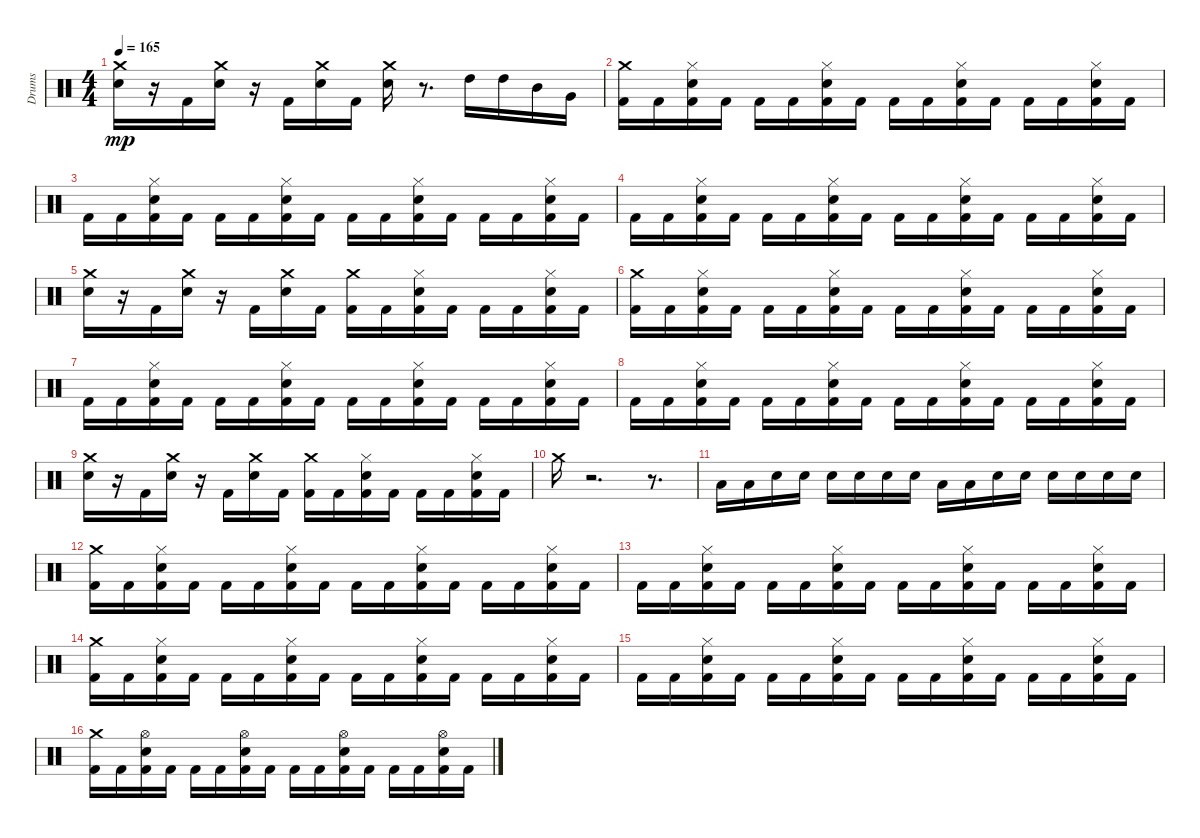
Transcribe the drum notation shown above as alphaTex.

\track ("Drums" "Drums") {instrument percussion}
\staff {score}
\articulation defaults
\ts (4 4)
\tempo 165
\clef neutral
\ks c
("Electric Snare (hit)" "Crash medium (hit)").16{dy mp} r.16 "Kick (hit) 2".16 ("Electric Snare (hit)" "Crash medium (hit)").16 r.16 "Kick (hit) 2".16 ("Crash medium (hit)" "Electric Snare (hit)").16 "Kick (hit) 2".16 ("Electric Snare (hit)" "Crash medium (hit)").16 r.8{d} "High Tom (hit)".16 "High Tom (hit)".16 "Mid Tom (hit)".16 "Very Low Tom (hit)".16 |
("Kick (hit) 2" "Crash medium (hit)").16 "Kick (hit) 2".16 ("Kick (hit) 2" "Hi-Hat (closed)" "Electric Snare (hit)").16 "Kick (hit) 2".16 "Kick (hit) 2".16 "Kick (hit) 2".16 ("Hi-Hat (closed)" "Electric Snare (hit)" "Kick (hit) 2").16 "Kick (hit) 2".16 "Kick (hit) 2".16 "Kick (hit) 2".16 ("Hi-Hat (closed)" "Electric Snare (hit)" "Kick (hit) 2").16 "Kick (hit) 2".16 "Kick (hit) 2".16 "Kick (hit) 2".16 ("Electric Snare (hit)" "Hi-Hat (closed)" "Kick (hit) 2").16 "Kick (hit) 2".16 |
"Kick (hit) 2".16 "Kick (hit) 2".16 ("Kick (hit) 2" "Electric Snare (hit)" "Hi-Hat (closed)").16 "Kick (hit) 2".16 "Kick (hit) 2".16 "Kick (hit) 2".16 ("Electric Snare (hit)" "Kick (hit) 2" "Hi-Hat (closed)").16 "Kick (hit) 2".16 "Kick (hit) 2".16 "Kick (hit) 2".16 ("Kick (hit) 2" "Hi-Hat (closed)" "Electric Snare (hit)").16 "Kick (hit) 2".16 "Kick (hit) 2".16 "Kick (hit) 2".16 ("Hi-Hat (closed)" "Electric Snare (hit)" "Kick (hit) 2").16 "Kick (hit) 2".16 |
"Kick (hit) 2".16 "Kick (hit) 2".16 ("Kick (hit) 2" "Electric Snare (hit)" "Hi-Hat (closed)").16 "Kick (hit) 2".16 "Kick (hit) 2".16 "Kick (hit) 2".16 ("Electric Snare (hit)" "Kick (hit) 2" "Hi-Hat (closed)").16 "Kick (hit) 2".16 "Kick (hit) 2".16 "Kick (hit) 2".16 ("Hi-Hat (closed)" "Electric Snare (hit)" "Kick (hit) 2").16 "Kick (hit) 2".16 "Kick (hit) 2".16 "Kick (hit) 2".16 ("Kick (hit) 2" "Hi-Hat (closed)" "Electric Snare (hit)").16 "Kick (hit) 2".16 |
("Electric Snare (hit)" "Crash medium (hit)").16 r.16 "Kick (hit) 2".16 ("Crash medium (hit)" "Electric Snare (hit)").16 r.16 "Kick (hit) 2".16 ("Crash medium (hit)" "Electric Snare (hit)").16 "Kick (hit) 2".16 ("Crash medium (hit)" "Kick (hit) 2").16 "Kick (hit) 2".16 ("Hi-Hat (closed)" "Kick (hit) 2" "Electric Snare (hit)").16 "Kick (hit) 2".16 "Kick (hit) 2".16 "Kick (hit) 2".16 ("Hi-Hat (closed)" "Kick (hit) 2" "Electric Snare (hit)").16 "Kick (hit) 2".16 |
("Crash medium (hit)" "Kick (hit) 2").16 "Kick (hit) 2".16 ("Hi-Hat (closed)" "Electric Snare (hit)" "Kick (hit) 2").16 "Kick (hit) 2".16 "Kick (hit) 2".16 "Kick (hit) 2".16 ("Hi-Hat (closed)" "Kick (hit) 2" "Electric Snare (hit)").16 "Kick (hit) 2".16 "Kick (hit) 2".16 "Kick (hit) 2".16 ("Hi-Hat (closed)" "Kick (hit) 2" "Electric Snare (hit)").16 "Kick (hit) 2".16 "Kick (hit) 2".16 "Kick (hit) 2".16 ("Kick (hit) 2" "Hi-Hat (closed)" "Electric Snare (hit)").16 "Kick (hit) 2".16 |
"Kick (hit) 2".16 "Kick (hit) 2".16 ("Electric Snare (hit)" "Hi-Hat (closed)" "Kick (hit) 2").16 "Kick (hit) 2".16 "Kick (hit) 2".16 "Kick (hit) 2".16 ("Electric Snare (hit)" "Hi-Hat (closed)" "Kick (hit) 2").16 "Kick (hit) 2".16 "Kick (hit) 2".16 "Kick (hit) 2".16 ("Kick (hit) 2" "Hi-Hat (closed)" "Electric Snare (hit)").16 "Kick (hit) 2".16 "Kick (hit) 2".16 "Kick (hit) 2".16 ("Electric Snare (hit)" "Kick (hit) 2" "Hi-Hat (closed)").16 "Kick (hit) 2".16 |
"Kick (hit) 2".16 "Kick (hit) 2".16 ("Kick (hit) 2" "Electric Snare (hit)" "Hi-Hat (closed)").16 "Kick (hit) 2".16 "Kick (hit) 2".16 "Kick (hit) 2".16 ("Electric Snare (hit)" "Hi-Hat (closed)" "Kick (hit) 2").16 "Kick (hit) 2".16 "Kick (hit) 2".16 "Kick (hit) 2".16 ("Kick (hit) 2" "Electric Snare (hit)" "Hi-Hat (closed)").16 "Kick (hit) 2".16 "Kick (hit) 2".16 "Kick (hit) 2".16 ("Electric Snare (hit)" "Kick (hit) 2" "Hi-Hat (closed)").16 "Kick (hit) 2".16 |
("Electric Snare (hit)" "Crash medium (hit)").16 r.16 "Kick (hit) 2".16 ("Crash medium (hit)" "Electric Snare (hit)").16 r.16 "Kick (hit) 2".16 ("Crash medium (hit)" "Electric Snare (hit)").16 "Kick (hit) 2".16 ("Crash medium (hit)" "Kick (hit) 2").16 "Kick (hit) 2".16 ("Hi-Hat (closed)" "Electric Snare (hit)" "Kick (hit) 2").16 "Kick (hit) 2".16 "Kick (hit) 2".16 "Kick (hit) 2".16 ("Hi-Hat (closed)" "Kick (hit) 2" "Electric Snare (hit)").16 "Kick (hit) 2".16 |
"Crash medium (hit)".16 r.2{d} r.8{d} |
"Low Floor Tom (hit)".16 "Low Floor Tom (hit)".16 "Electric Snare (hit)".16 "Electric Snare (hit)".16 "Electric Snare (hit)".16 "Electric Snare (hit)".16 "Electric Snare (hit)".16 "Electric Snare (hit)".16 "Low Floor Tom (hit)".16 "Low Floor Tom (hit)".16 "Electric Snare (hit)".16 "Electric Snare (hit)".16 "Electric Snare (hit)".16 "Electric Snare (hit)".16 "Electric Snare (hit)".16 "Electric Snare (hit)".16 |
("Kick (hit) 2" "Crash medium (hit)").16 "Kick (hit) 2".16 ("Hi-Hat (closed)" "Kick (hit) 2" "Electric Snare (hit)").16 "Kick (hit) 2".16 "Kick (hit) 2".16 "Kick (hit) 2".16 ("Kick (hit) 2" "Hi-Hat (closed)" "Electric Snare (hit)").16 "Kick (hit) 2".16 "Kick (hit) 2".16 "Kick (hit) 2".16 ("Hi-Hat (closed)" "Kick (hit) 2" "Electric Snare (hit)").16 "Kick (hit) 2".16 "Kick (hit) 2".16 "Kick (hit) 2".16 ("Electric Snare (hit)" "Kick (hit) 2" "Hi-Hat (closed)").16 "Kick (hit) 2".16 |
"Kick (hit) 2".16 "Kick (hit) 2".16 ("Kick (hit) 2" "Electric Snare (hit)" "Hi-Hat (closed)").16 "Kick (hit) 2".16 "Kick (hit) 2".16 "Kick (hit) 2".16 ("Electric Snare (hit)" "Hi-Hat (closed)" "Kick (hit) 2").16 "Kick (hit) 2".16 "Kick (hit) 2".16 "Kick (hit) 2".16 ("Hi-Hat (closed)" "Kick (hit) 2" "Electric Snare (hit)").16 "Kick (hit) 2".16 "Kick (hit) 2".16 "Kick (hit) 2".16 ("Hi-Hat (closed)" "Kick (hit) 2" "Electric Snare (hit)").16 "Kick (hit) 2".16 |
("Crash medium (hit)" "Kick (hit) 2").16 "Kick (hit) 2".16 ("Hi-Hat (closed)" "Electric Snare (hit)" "Kick (hit) 2").16 "Kick (hit) 2".16 "Kick (hit) 2".16 "Kick (hit) 2".16 ("Hi-Hat (closed)" "Kick (hit) 2" "Electric Snare (hit)").16 "Kick (hit) 2".16 "Kick (hit) 2".16 "Kick (hit) 2".16 ("Hi-Hat (closed)" "Kick (hit) 2" "Electric Snare (hit)").16 "Kick (hit) 2".16 "Kick (hit) 2".16 "Kick (hit) 2".16 ("Kick (hit) 2" "Electric Snare (hit)" "Hi-Hat (closed)").16 "Kick (hit) 2".16 |
"Kick (hit) 2".16 "Kick (hit) 2".16 ("Kick (hit) 2" "Hi-Hat (closed)" "Electric Snare (hit)").16 "Kick (hit) 2".16 "Kick (hit) 2".16 "Kick (hit) 2".16 ("Kick (hit) 2" "Electric Snare (hit)" "Hi-Hat (closed)").16 "Kick (hit) 2".16 "Kick (hit) 2".16 "Kick (hit) 2".16 ("Electric Snare (hit)" "Kick (hit) 2" "Hi-Hat (closed)").16 "Kick (hit) 2".16 "Kick (hit) 2".16 "Kick (hit) 2".16 ("Electric Snare (hit)" "Kick (hit) 2" "Hi-Hat (closed)").16 "Kick (hit) 2".16 |
("Crash medium (hit)" "Kick (hit) 2").16 "Kick (hit) 2".16 ("Kick (hit) 2" "Electric Snare (hit)" "Hi-Hat (open)").16 "Kick (hit) 2".16 "Kick (hit) 2".16 "Kick (hit) 2".16 ("Hi-Hat (open)" "Electric Snare (hit)" "Kick (hit) 2").16 "Kick (hit) 2".16 "Kick (hit) 2".16 "Kick (hit) 2".16 ("Kick (hit) 2" "Hi-Hat (open)" "Electric Snare (hit)").16 "Kick (hit) 2".16 "Kick (hit) 2".16 "Kick (hit) 2".16 ("Electric Snare (hit)" "Hi-Hat (open)" "Kick (hit) 2").16 "Kick (hit) 2".16
